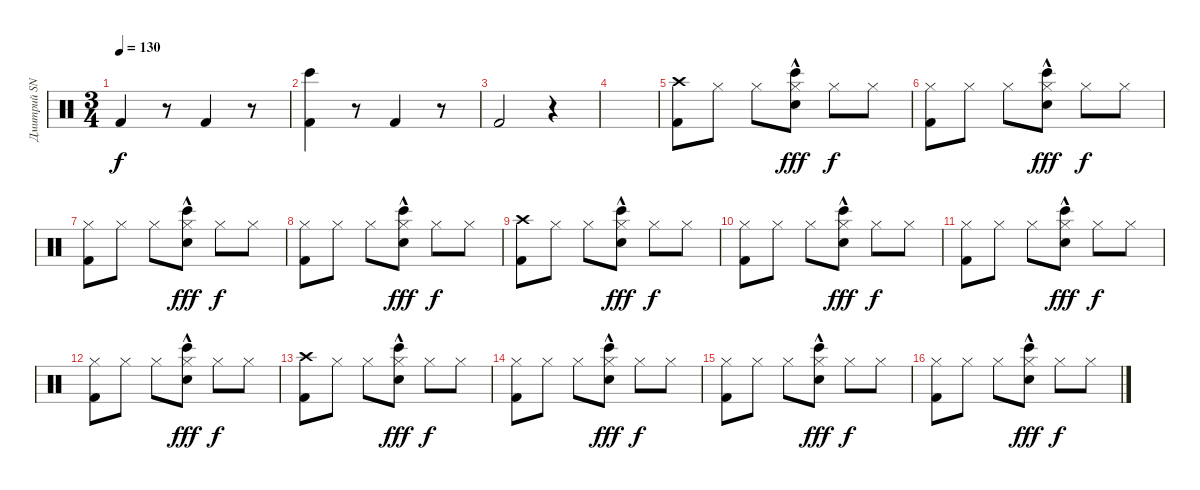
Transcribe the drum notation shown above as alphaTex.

\track ("Дмитрий SNAKE Хакимов" "Дмитрий SN") {instrument percussion}
\staff {score}
\articulation defaults
\ts (3 4)
\tempo 130
\clef neutral
\ks c "Kick (hit) 2".4{dy f}
r.8 "Kick (hit) 2".4 r.8 |
("Bongo High (hit)" "Kick (hit) 2").4 r.8 "Kick (hit) 2".4 r.8 |
"Kick (hit) 2".2 r.4 |
|
("Crash high (hit)" "Kick (hit) 2").8 "Hi-Hat (closed)".8 "Hi-Hat (closed)".8 ("Hi-Hat (closed)" "Snare (hit) 2"{hac} "Bongo High (hit)").8{dy fff} "Hi-Hat (closed)".8{dy f} "Hi-Hat (closed)".8 |
("Hi-Hat (closed)" "Kick (hit) 2").8 "Hi-Hat (closed)".8 "Hi-Hat (closed)".8 ("Hi-Hat (closed)" "Snare (hit) 2"{hac} "Bongo High (hit)").8{dy fff} "Hi-Hat (closed)".8{dy f} "Hi-Hat (closed)".8 |
("Hi-Hat (closed)" "Kick (hit) 2").8 "Hi-Hat (closed)".8 "Hi-Hat (closed)".8 ("Hi-Hat (closed)" "Snare (hit) 2"{hac} "Bongo High (hit)").8{dy fff} "Hi-Hat (closed)".8{dy f} "Hi-Hat (closed)".8 |
("Hi-Hat (closed)" "Kick (hit) 2").8 "Hi-Hat (closed)".8 "Hi-Hat (closed)".8 ("Hi-Hat (closed)" "Snare (hit) 2"{hac} "Bongo High (hit)").8{dy fff} "Hi-Hat (closed)".8{dy f} "Hi-Hat (closed)".8 |
("Crash high (hit)" "Kick (hit) 2").8 "Hi-Hat (closed)".8 "Hi-Hat (closed)".8 ("Hi-Hat (closed)" "Snare (hit) 2"{hac} "Bongo High (hit)").8{dy fff} "Hi-Hat (closed)".8{dy f} "Hi-Hat (closed)".8 |
("Hi-Hat (closed)" "Kick (hit) 2").8 "Hi-Hat (closed)".8 "Hi-Hat (closed)".8 ("Hi-Hat (closed)" "Snare (hit) 2"{hac} "Bongo High (hit)").8{dy fff} "Hi-Hat (closed)".8{dy f} "Hi-Hat (closed)".8 |
("Hi-Hat (closed)" "Kick (hit) 2").8 "Hi-Hat (closed)".8 "Hi-Hat (closed)".8 ("Hi-Hat (closed)" "Snare (hit) 2"{hac} "Bongo High (hit)").8{dy fff} "Hi-Hat (closed)".8{dy f} "Hi-Hat (closed)".8 |
("Hi-Hat (closed)" "Kick (hit) 2").8 "Hi-Hat (closed)".8 "Hi-Hat (closed)".8 ("Hi-Hat (closed)" "Snare (hit) 2"{hac} "Bongo High (hit)").8{dy fff} "Hi-Hat (closed)".8{dy f} "Hi-Hat (closed)".8 |
("Crash high (hit)" "Kick (hit) 2").8 "Hi-Hat (closed)".8 "Hi-Hat (closed)".8 ("Hi-Hat (closed)" "Snare (hit) 2"{hac} "Bongo High (hit)").8{dy fff} "Hi-Hat (closed)".8{dy f} "Hi-Hat (closed)".8 |
("Hi-Hat (closed)" "Kick (hit) 2").8 "Hi-Hat (closed)".8 "Hi-Hat (closed)".8 ("Hi-Hat (closed)" "Snare (hit) 2"{hac} "Bongo High (hit)").8{dy fff} "Hi-Hat (closed)".8{dy f} "Hi-Hat (closed)".8 |
("Hi-Hat (closed)" "Kick (hit) 2").8 "Hi-Hat (closed)".8 "Hi-Hat (closed)".8 ("Hi-Hat (closed)" "Snare (hit) 2"{hac} "Bongo High (hit)").8{dy fff} "Hi-Hat (closed)".8{dy f} "Hi-Hat (closed)".8 |
("Hi-Hat (closed)" "Kick (hit) 2").8 "Hi-Hat (closed)".8 "Hi-Hat (closed)".8 ("Hi-Hat (closed)" "Snare (hit) 2"{hac} "Bongo High (hit)").8{dy fff} "Hi-Hat (closed)".8{dy f} "Hi-Hat (closed)".8
